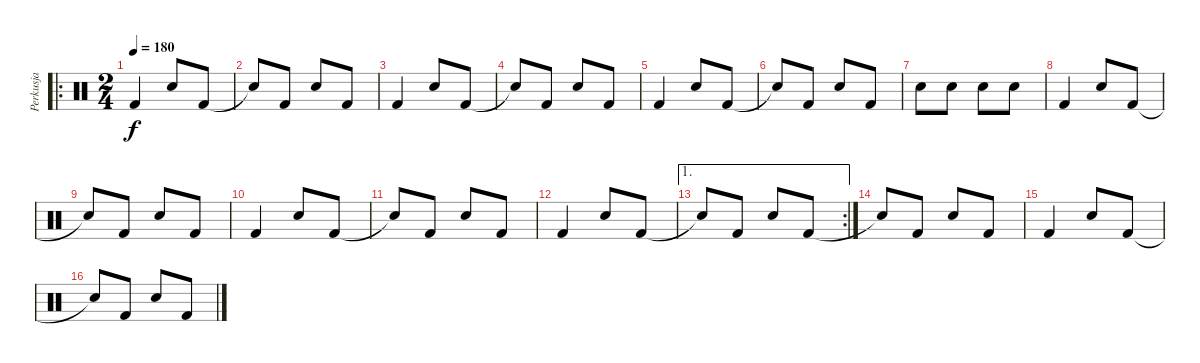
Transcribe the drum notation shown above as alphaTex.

\track ("Perkusja" "Perkusja") {instrument percussion}
\staff {score}
\articulation defaults
\ro
\ts (2 4)
\tempo 180
\clef neutral
\ks c "Kick (hit) 2".4{dy f} "Snare (hit) 2".8 "Kick (hit) 2".8
|
"Snare (hit)"{t}.8 "Kick (hit) 2".8 "Snare (hit) 2".8 "Kick (hit) 2".8 |
"Kick (hit) 2".4 "Snare (hit) 2".8 "Kick (hit) 2".8 |
"Snare (hit)"{t}.8 "Kick (hit) 2".8 "Snare (hit) 2".8 "Kick (hit) 2".8 |
"Kick (hit) 2".4 "Snare (hit) 2".8 "Kick (hit) 2".8 |
"Snare (hit)"{t}.8 "Kick (hit) 2".8 "Snare (hit) 2".8 "Kick (hit) 2".8 |
"Snare (hit) 2".8 "Snare (hit) 2".8 "Snare (hit) 2".8 "Snare (hit) 2".8 |
"Kick (hit) 2".4 "Snare (hit) 2".8 "Kick (hit) 2".8 |
"Snare (hit)"{t}.8 "Kick (hit) 2".8 "Snare (hit) 2".8 "Kick (hit) 2".8 |
"Kick (hit) 2".4 "Snare (hit) 2".8 "Kick (hit) 2".8 |
"Snare (hit)"{t}.8 "Kick (hit) 2".8 "Snare (hit) 2".8 "Kick (hit) 2".8 |
"Kick (hit) 2".4 "Snare (hit) 2".8 "Kick (hit) 2".8 |
\ae 1
\rc 2 "Snare (hit)"{t}.8 "Kick (hit) 2".8 "Snare (hit) 2".8 "Kick (hit) 2".8
|
"Snare (hit)"{t}.8 "Kick (hit) 2".8 "Snare (hit) 2".8 "Kick (hit) 2".8 |
"Kick (hit) 2".4 "Snare (hit) 2".8 "Kick (hit) 2".8 |
"Snare (hit)"{t}.8 "Kick (hit) 2".8 "Snare (hit) 2".8 "Kick (hit) 2".8
